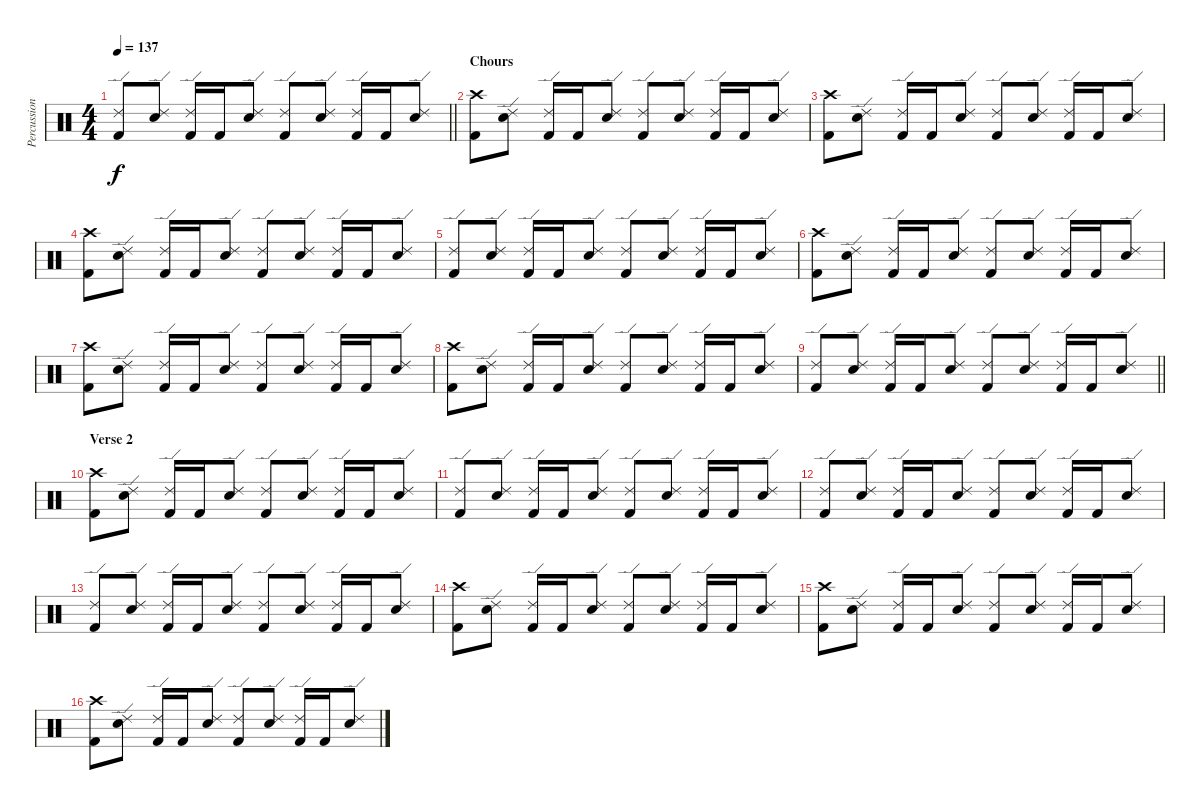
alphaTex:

\track ("Percussion" "Percussion") {instrument percussion}
\staff {score}
\articulation defaults
\ts (4 4)
\tempo 137
\clef neutral
\barLineRight lightlight
\ks c
("Ride (edge) 2" "Kick (hit) 2").8{dy f} ("Ride (edge) 2" "Electric Snare (hit)").8 ("Ride (edge) 2" "Kick (hit) 2").16 "Kick (hit) 2".16 ("Ride (edge) 2" "Electric Snare (hit)").8 ("Ride (edge) 2" "Kick (hit) 2").8 ("Ride (edge) 2" "Electric Snare (hit)").8 ("Ride (edge) 2" "Kick (hit) 2").16 "Kick (hit) 2".16 ("Ride (edge) 2" "Electric Snare (hit)").8 |
\section ("" "Chours")
("Crash high (hit)" "Kick (hit) 2").8 ("Ride (edge) 2" "Electric Snare (hit)").8 ("Ride (edge) 2" "Kick (hit) 2").16 "Kick (hit) 2".16 ("Ride (edge) 2" "Electric Snare (hit)").8 ("Ride (edge) 2" "Kick (hit) 2").8 ("Ride (edge) 2" "Electric Snare (hit)").8 ("Ride (edge) 2" "Kick (hit) 2").16 "Kick (hit) 2".16 ("Ride (edge) 2" "Electric Snare (hit)").8 |
("Crash high (hit)" "Kick (hit) 2").8 ("Ride (edge) 2" "Electric Snare (hit)").8 ("Ride (edge) 2" "Kick (hit) 2").16 "Kick (hit) 2".16 ("Ride (edge) 2" "Electric Snare (hit)").8 ("Ride (edge) 2" "Kick (hit) 2").8 ("Ride (edge) 2" "Electric Snare (hit)").8 ("Ride (edge) 2" "Kick (hit) 2").16 "Kick (hit) 2".16 ("Ride (edge) 2" "Electric Snare (hit)").8 |
("Crash high (hit)" "Kick (hit) 2").8 ("Ride (edge) 2" "Electric Snare (hit)").8 ("Ride (edge) 2" "Kick (hit) 2").16 "Kick (hit) 2".16 ("Ride (edge) 2" "Electric Snare (hit)").8 ("Ride (edge) 2" "Kick (hit) 2").8 ("Ride (edge) 2" "Electric Snare (hit)").8 ("Ride (edge) 2" "Kick (hit) 2").16 "Kick (hit) 2".16 ("Ride (edge) 2" "Electric Snare (hit)").8 |
("Ride (edge) 2" "Kick (hit) 2").8 ("Ride (edge) 2" "Electric Snare (hit)").8 ("Ride (edge) 2" "Kick (hit) 2").16 "Kick (hit) 2".16 ("Ride (edge) 2" "Electric Snare (hit)").8 ("Ride (edge) 2" "Kick (hit) 2").8 ("Ride (edge) 2" "Electric Snare (hit)").8 ("Ride (edge) 2" "Kick (hit) 2").16 "Kick (hit) 2".16 ("Ride (edge) 2" "Electric Snare (hit)").8 |
("Crash high (hit)" "Kick (hit) 2").8 ("Ride (edge) 2" "Electric Snare (hit)").8 ("Ride (edge) 2" "Kick (hit) 2").16 "Kick (hit) 2".16 ("Ride (edge) 2" "Electric Snare (hit)").8 ("Ride (edge) 2" "Kick (hit) 2").8 ("Ride (edge) 2" "Electric Snare (hit)").8 ("Ride (edge) 2" "Kick (hit) 2").16 "Kick (hit) 2".16 ("Ride (edge) 2" "Electric Snare (hit)").8 |
("Crash high (hit)" "Kick (hit) 2").8 ("Ride (edge) 2" "Electric Snare (hit)").8 ("Ride (edge) 2" "Kick (hit) 2").16 "Kick (hit) 2".16 ("Ride (edge) 2" "Electric Snare (hit)").8 ("Ride (edge) 2" "Kick (hit) 2").8 ("Ride (edge) 2" "Electric Snare (hit)").8 ("Ride (edge) 2" "Kick (hit) 2").16 "Kick (hit) 2".16 ("Ride (edge) 2" "Electric Snare (hit)").8 |
("Crash high (hit)" "Kick (hit) 2").8 ("Ride (edge) 2" "Electric Snare (hit)").8 ("Ride (edge) 2" "Kick (hit) 2").16 "Kick (hit) 2".16 ("Ride (edge) 2" "Electric Snare (hit)").8 ("Ride (edge) 2" "Kick (hit) 2").8 ("Ride (edge) 2" "Electric Snare (hit)").8 ("Ride (edge) 2" "Kick (hit) 2").16 "Kick (hit) 2".16 ("Ride (edge) 2" "Electric Snare (hit)").8 |
\barLineRight lightlight
("Ride (edge) 2" "Kick (hit) 2").8 ("Ride (edge) 2" "Electric Snare (hit)").8 ("Ride (edge) 2" "Kick (hit) 2").16 "Kick (hit) 2".16 ("Ride (edge) 2" "Electric Snare (hit)").8 ("Ride (edge) 2" "Kick (hit) 2").8 ("Ride (edge) 2" "Electric Snare (hit)").8 ("Ride (edge) 2" "Kick (hit) 2").16 "Kick (hit) 2".16 ("Ride (edge) 2" "Electric Snare (hit)").8 |
\section ("" "Verse 2")
("Crash high (hit)" "Kick (hit) 2").8 ("Ride (edge) 2" "Electric Snare (hit)").8 ("Ride (edge) 2" "Kick (hit) 2").16 "Kick (hit) 2".16 ("Ride (edge) 2" "Electric Snare (hit)").8 ("Ride (edge) 2" "Kick (hit) 2").8 ("Ride (edge) 2" "Electric Snare (hit)").8 ("Ride (edge) 2" "Kick (hit) 2").16 "Kick (hit) 2".16 ("Ride (edge) 2" "Electric Snare (hit)").8 |
("Ride (edge) 2" "Kick (hit) 2").8 ("Ride (edge) 2" "Electric Snare (hit)").8 ("Ride (edge) 2" "Kick (hit) 2").16 "Kick (hit) 2".16 ("Ride (edge) 2" "Electric Snare (hit)").8 ("Ride (edge) 2" "Kick (hit) 2").8 ("Ride (edge) 2" "Electric Snare (hit)").8 ("Ride (edge) 2" "Kick (hit) 2").16 "Kick (hit) 2".16 ("Ride (edge) 2" "Electric Snare (hit)").8 |
("Ride (edge) 2" "Kick (hit) 2").8 ("Ride (edge) 2" "Electric Snare (hit)").8 ("Ride (edge) 2" "Kick (hit) 2").16 "Kick (hit) 2".16 ("Ride (edge) 2" "Electric Snare (hit)").8 ("Ride (edge) 2" "Kick (hit) 2").8 ("Ride (edge) 2" "Electric Snare (hit)").8 ("Ride (edge) 2" "Kick (hit) 2").16 "Kick (hit) 2".16 ("Ride (edge) 2" "Electric Snare (hit)").8 |
("Ride (edge) 2" "Kick (hit) 2").8 ("Ride (edge) 2" "Electric Snare (hit)").8 ("Ride (edge) 2" "Kick (hit) 2").16 "Kick (hit) 2".16 ("Ride (edge) 2" "Electric Snare (hit)").8 ("Ride (edge) 2" "Kick (hit) 2").8 ("Ride (edge) 2" "Electric Snare (hit)").8 ("Ride (edge) 2" "Kick (hit) 2").16 "Kick (hit) 2".16 ("Ride (edge) 2" "Electric Snare (hit)").8 |
("Crash high (hit)" "Kick (hit) 2").8 ("Ride (edge) 2" "Electric Snare (hit)").8 ("Ride (edge) 2" "Kick (hit) 2").16 "Kick (hit) 2".16 ("Ride (edge) 2" "Electric Snare (hit)").8 ("Ride (edge) 2" "Kick (hit) 2").8 ("Ride (edge) 2" "Electric Snare (hit)").8 ("Ride (edge) 2" "Kick (hit) 2").16 "Kick (hit) 2".16 ("Ride (edge) 2" "Electric Snare (hit)").8 |
("Crash high (hit)" "Kick (hit) 2").8 ("Ride (edge) 2" "Electric Snare (hit)").8 ("Ride (edge) 2" "Kick (hit) 2").16 "Kick (hit) 2".16 ("Ride (edge) 2" "Electric Snare (hit)").8 ("Ride (edge) 2" "Kick (hit) 2").8 ("Ride (edge) 2" "Electric Snare (hit)").8 ("Ride (edge) 2" "Kick (hit) 2").16 "Kick (hit) 2".16 ("Ride (edge) 2" "Electric Snare (hit)").8 |
("Crash high (hit)" "Kick (hit) 2").8 ("Ride (edge) 2" "Electric Snare (hit)").8 ("Ride (edge) 2" "Kick (hit) 2").16 "Kick (hit) 2".16 ("Ride (edge) 2" "Electric Snare (hit)").8 ("Ride (edge) 2" "Kick (hit) 2").8 ("Ride (edge) 2" "Electric Snare (hit)").8 ("Ride (edge) 2" "Kick (hit) 2").16 "Kick (hit) 2".16 ("Ride (edge) 2" "Electric Snare (hit)").8
